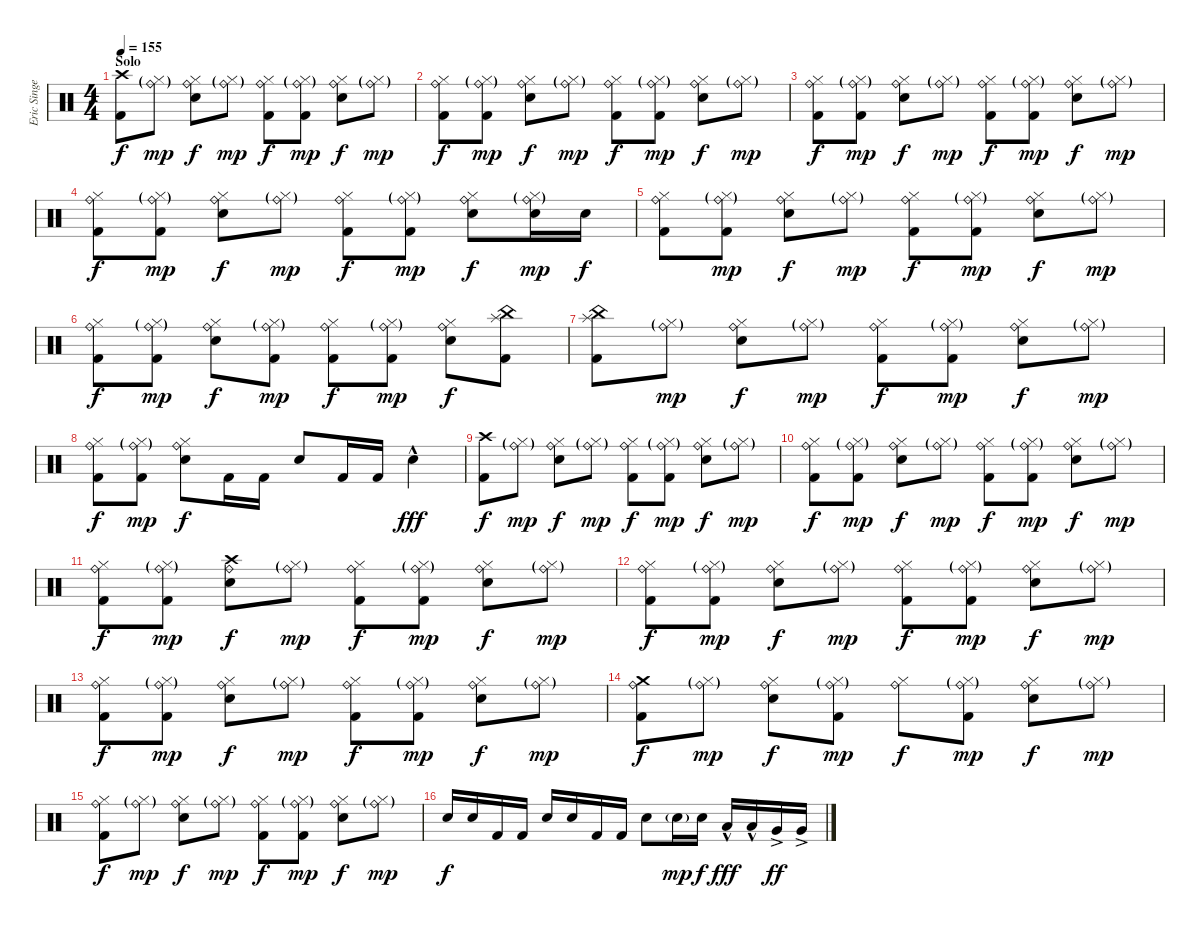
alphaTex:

\track ("Eric Singer" "Eric Singe") {instrument percussion}
\staff {score}
\articulation defaults
\ts (4 4)
\section ("" "Solo")
\tempo 155
\clef neutral
\ks c
("Crash high (hit)" "Kick (hit) 2").8{dy f} ("Hi-Hat (closed)"{g} "Ride (bell)"{g}).8{dy mp} ("Hi-Hat (closed)" "Ride (bell)" "Snare (hit) 2").8{dy f} ("Hi-Hat (closed)"{g} "Ride (bell)"{g}).8{dy mp} ("Hi-Hat (closed)" "Ride (bell)" "Kick (hit) 2").8{dy f} ("Hi-Hat (closed)"{g} "Ride (bell)"{g} "Kick (hit) 2").8{dy mp} ("Hi-Hat (closed)" "Ride (bell)" "Snare (hit) 2").8{dy f} ("Hi-Hat (closed)"{g} "Ride (bell)"{g}).8{dy mp} |
("Hi-Hat (closed)" "Ride (bell)" "Kick (hit) 2").8{dy f} ("Hi-Hat (closed)"{g} "Ride (bell)"{g} "Kick (hit) 2").8{dy mp} ("Hi-Hat (closed)" "Ride (bell)" "Snare (hit) 2").8{dy f} ("Hi-Hat (closed)"{g} "Ride (bell)"{g}).8{dy mp} ("Hi-Hat (closed)" "Ride (bell)" "Kick (hit) 2").8{dy f} ("Hi-Hat (closed)"{g} "Ride (bell)"{g} "Kick (hit) 2").8{dy mp} ("Hi-Hat (closed)" "Ride (bell)" "Snare (hit) 2").8{dy f} ("Hi-Hat (closed)"{g} "Ride (bell)"{g}).8{dy mp} |
("Hi-Hat (closed)" "Ride (bell)" "Kick (hit) 2").8{dy f} ("Hi-Hat (closed)"{g} "Ride (bell)"{g} "Kick (hit) 2").8{dy mp} ("Hi-Hat (closed)" "Ride (bell)" "Snare (hit) 2").8{dy f} ("Hi-Hat (closed)"{g} "Ride (bell)"{g}).8{dy mp} ("Hi-Hat (closed)" "Ride (bell)" "Kick (hit) 2").8{dy f} ("Hi-Hat (closed)"{g} "Ride (bell)"{g} "Kick (hit) 2").8{dy mp} ("Hi-Hat (closed)" "Ride (bell)" "Snare (hit) 2").8{dy f} ("Hi-Hat (closed)"{g} "Ride (bell)"{g}).8{dy mp} |
("Hi-Hat (closed)" "Ride (bell)" "Kick (hit) 2").8{dy f} ("Hi-Hat (closed)"{g} "Ride (bell)"{g} "Kick (hit) 2").8{dy mp} ("Hi-Hat (closed)" "Ride (bell)" "Snare (hit) 2").8{dy f} ("Hi-Hat (closed)"{g} "Ride (bell)"{g}).8{dy mp} ("Hi-Hat (closed)" "Ride (bell)" "Kick (hit) 2").8{dy f} ("Hi-Hat (closed)"{g} "Ride (bell)"{g} "Kick (hit) 2").8{dy mp} ("Hi-Hat (closed)" "Ride (bell)" "Snare (hit) 2").8{dy f} ("Hi-Hat (closed)"{g} "Ride (bell)"{g} "Snare (hit) 2").16{dy mp} "Snare (hit) 2".16{dy f} |
("Hi-Hat (closed)" "Ride (bell)" "Kick (hit) 2").8 ("Hi-Hat (closed)"{g} "Ride (bell)"{g} "Kick (hit) 2").8{dy mp} ("Hi-Hat (closed)" "Ride (bell)" "Snare (hit) 2").8{dy f} ("Hi-Hat (closed)"{g} "Ride (bell)"{g}).8{dy mp} ("Hi-Hat (closed)" "Ride (bell)" "Kick (hit) 2").8{dy f} ("Hi-Hat (closed)"{g} "Ride (bell)"{g} "Kick (hit) 2").8{dy mp} ("Hi-Hat (closed)" "Ride (bell)" "Snare (hit) 2").8{dy f} ("Hi-Hat (closed)"{g} "Ride (bell)"{g}).8{dy mp} |
("Hi-Hat (closed)" "Ride (bell)" "Kick (hit) 2").8{dy f} ("Hi-Hat (closed)"{g} "Ride (bell)"{g} "Kick (hit) 2").8{dy mp} ("Hi-Hat (closed)" "Ride (bell)" "Snare (hit) 2").8{dy f} ("Hi-Hat (closed)"{g} "Ride (bell)"{g} "Kick (hit) 2").8{dy mp} ("Hi-Hat (closed)" "Ride (bell)" "Kick (hit) 2").8{dy f} ("Hi-Hat (closed)"{g} "Ride (bell)"{g} "Kick (hit) 2").8{dy mp} ("Hi-Hat (closed)" "Ride (bell)" "Snare (hit) 2").8{dy f} ("Splash (hit)" "China (hit)" "Kick (hit) 2").8 |
("Splash (hit)" "China (hit)" "Kick (hit) 2").8 ("Hi-Hat (closed)"{g} "Ride (bell)"{g}).8{dy mp} ("Hi-Hat (closed)" "Ride (bell)" "Snare (hit) 2").8{dy f} ("Hi-Hat (closed)"{g} "Ride (bell)"{g}).8{dy mp} ("Hi-Hat (closed)" "Ride (bell)" "Kick (hit) 2").8{dy f} ("Hi-Hat (closed)"{g} "Ride (bell)"{g} "Kick (hit) 2").8{dy mp} ("Hi-Hat (closed)" "Ride (bell)" "Snare (hit) 2").8{dy f} ("Hi-Hat (closed)"{g} "Ride (bell)"{g}).8{dy mp} |
("Hi-Hat (closed)" "Ride (bell)" "Kick (hit) 2").8{dy f} ("Hi-Hat (closed)"{g} "Ride (bell)"{g} "Kick (hit) 2").8{dy mp} ("Hi-Hat (closed)" "Ride (bell)" "Snare (hit) 2").8{dy f} "Kick (hit) 2".16 "Kick (hit) 2".16 "Snare (hit) 2".8 "Kick (hit) 2".16 "Kick (hit) 2".16 "Snare (hit) 2"{hac}.4{dy fff} |
("Crash high (hit)" "Kick (hit) 2").8{dy f} ("Hi-Hat (closed)"{g} "Ride (bell)"{g}).8{dy mp} ("Hi-Hat (closed)" "Ride (bell)" "Snare (hit) 2").8{dy f} ("Hi-Hat (closed)"{g} "Ride (bell)"{g}).8{dy mp} ("Hi-Hat (closed)" "Ride (bell)" "Kick (hit) 2").8{dy f} ("Hi-Hat (closed)"{g} "Ride (bell)"{g} "Kick (hit) 2").8{dy mp} ("Hi-Hat (closed)" "Ride (bell)" "Snare (hit) 2").8{dy f} ("Hi-Hat (closed)"{g} "Ride (bell)"{g}).8{dy mp} |
("Hi-Hat (closed)" "Ride (bell)" "Kick (hit) 2").8{dy f} ("Hi-Hat (closed)"{g} "Ride (bell)"{g} "Kick (hit) 2").8{dy mp} ("Hi-Hat (closed)" "Ride (bell)" "Snare (hit) 2").8{dy f} ("Hi-Hat (closed)"{g} "Ride (bell)"{g}).8{dy mp} ("Hi-Hat (closed)" "Ride (bell)" "Kick (hit) 2").8{dy f} ("Hi-Hat (closed)"{g} "Ride (bell)"{g} "Kick (hit) 2").8{dy mp} ("Hi-Hat (closed)" "Ride (bell)" "Snare (hit) 2").8{dy f} ("Hi-Hat (closed)"{g} "Ride (bell)"{g}).8{dy mp} |
("Hi-Hat (closed)" "Ride (bell)" "Kick (hit) 2").8{dy f} ("Hi-Hat (closed)"{g} "Ride (bell)"{g} "Kick (hit) 2").8{dy mp} ("Crash high (hit)" "Ride (bell)" "Snare (hit) 2").8{dy f} ("Hi-Hat (closed)"{g} "Ride (bell)"{g}).8{dy mp} ("Hi-Hat (closed)" "Ride (bell)" "Kick (hit) 2").8{dy f} ("Hi-Hat (closed)"{g} "Ride (bell)"{g} "Kick (hit) 2").8{dy mp} ("Hi-Hat (closed)" "Ride (bell)" "Snare (hit) 2").8{dy f} ("Hi-Hat (closed)"{g} "Ride (bell)"{g}).8{dy mp} |
("Hi-Hat (closed)" "Ride (bell)" "Kick (hit) 2").8{dy f} ("Hi-Hat (closed)"{g} "Ride (bell)"{g} "Kick (hit) 2").8{dy mp} ("Hi-Hat (closed)" "Ride (bell)" "Snare (hit) 2").8{dy f} ("Hi-Hat (closed)"{g} "Ride (bell)"{g}).8{dy mp} ("Hi-Hat (closed)" "Ride (bell)" "Kick (hit) 2").8{dy f} ("Hi-Hat (closed)"{g} "Ride (bell)"{g} "Kick (hit) 2").8{dy mp} ("Hi-Hat (closed)" "Ride (bell)" "Snare (hit) 2").8{dy f} ("Hi-Hat (closed)"{g} "Ride (bell)"{g}).8{dy mp} |
("Hi-Hat (closed)" "Ride (bell)" "Kick (hit) 2").8{dy f} ("Hi-Hat (closed)"{g} "Ride (bell)"{g} "Kick (hit) 2").8{dy mp} ("Hi-Hat (closed)" "Ride (bell)" "Snare (hit) 2").8{dy f} ("Hi-Hat (closed)"{g} "Ride (bell)"{g}).8{dy mp} ("Hi-Hat (closed)" "Ride (bell)" "Kick (hit) 2").8{dy f} ("Hi-Hat (closed)"{g} "Ride (bell)"{g} "Kick (hit) 2").8{dy mp} ("Hi-Hat (closed)" "Ride (bell)" "Snare (hit) 2").8{dy f} ("Hi-Hat (closed)"{g} "Ride (bell)"{g}).8{dy mp} |
("Crash medium (hit)" "Ride (bell)" "Kick (hit) 2").8{dy f} ("Hi-Hat (closed)"{g} "Ride (bell)"{g}).8{dy mp} ("Hi-Hat (closed)" "Ride (bell)" "Snare (hit) 2").8{dy f} ("Hi-Hat (closed)"{g} "Ride (bell)"{g} "Kick (hit) 2").8{dy mp} ("Hi-Hat (closed)" "Ride (bell)").8{dy f} ("Hi-Hat (closed)"{g} "Ride (bell)"{g} "Kick (hit) 2").8{dy mp} ("Hi-Hat (closed)" "Ride (bell)" "Snare (hit) 2").8{dy f} ("Hi-Hat (closed)"{g} "Ride (bell)"{g}).8{dy mp} |
("Hi-Hat (closed)" "Ride (bell)" "Kick (hit) 2").8{dy f} ("Hi-Hat (closed)"{g} "Ride (bell)"{g}).8{dy mp} ("Hi-Hat (closed)" "Ride (bell)" "Snare (hit) 2").8{dy f} ("Hi-Hat (closed)"{g} "Ride (bell)"{g}).8{dy mp} ("Hi-Hat (closed)" "Ride (bell)" "Kick (hit) 2").8{dy f} ("Hi-Hat (closed)"{g} "Ride (bell)"{g} "Kick (hit) 2").8{dy mp} ("Hi-Hat (closed)" "Ride (bell)" "Snare (hit) 2").8{dy f} ("Hi-Hat (closed)"{g} "Ride (bell)"{g}).8{dy mp} |
"Snare (hit) 2".16{dy f} "Snare (hit) 2".16 "Kick (hit) 2".16 "Kick (hit) 2".16 "Snare (hit) 2".16 "Snare (hit) 2".16 "Kick (hit) 2".16 "Kick (hit) 2".16 "Snare (hit) 2".8 "Snare (hit) 2"{g}.16{dy mp} "Snare (hit) 2".16{dy f} "Low Tom (hit)"{hac}.16{dy fff} "Low Tom (hit)"{hac}.16 "Very Low Tom (hit)"{ac}.16{dy ff} "Very Low Tom (hit)"{ac}.16
